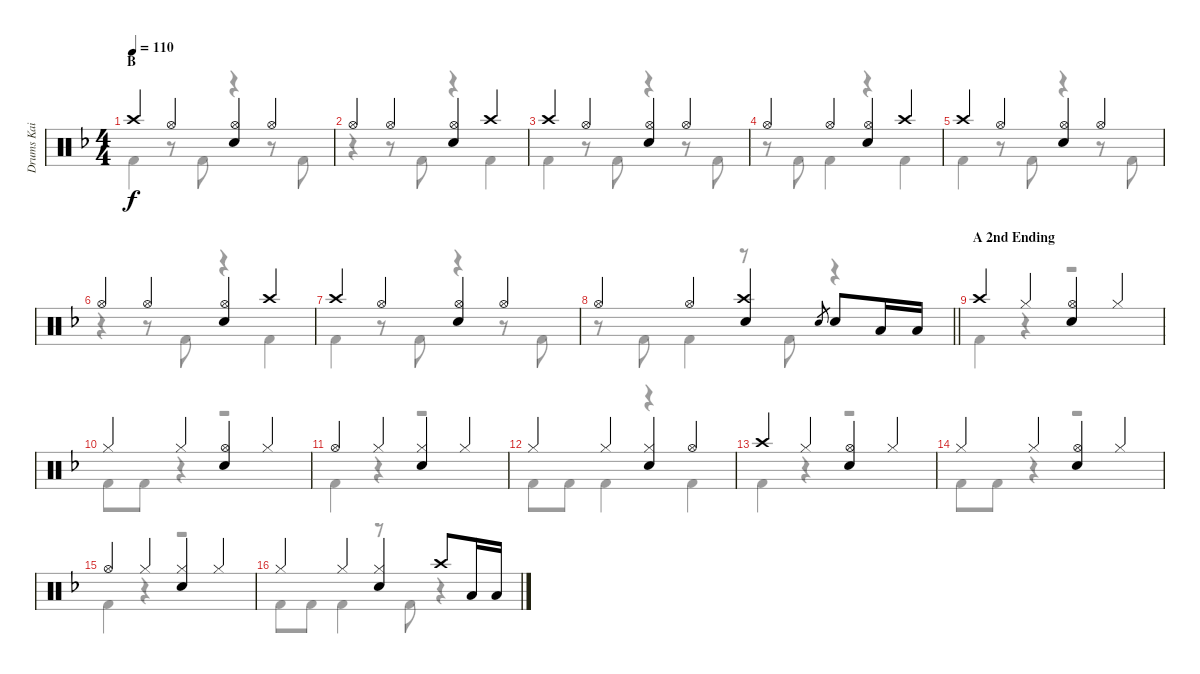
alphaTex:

\track ("Drums Kai" "Drums Kai") {instrument percussion}
\staff {score}
\articulation defaults
\voice
\ts (4 4)
\section ("" "B")
\tempo 110
\clef neutral
\ks f "Crash high (hit)".4{dy f} "Hi-Hat (open)".4
("Hi-Hat (open)" "Electric Snare (hit)").4 "Hi-Hat (open)".4 |
"Hi-Hat (open)".4 "Hi-Hat (open)".4 ("Hi-Hat (open)" "Electric Snare (hit)").4 "Crash high (hit)".4 |
"Crash high (hit)".4 "Hi-Hat (open)".4 ("Hi-Hat (open)" "Electric Snare (hit)").4 "Hi-Hat (open)".4 |
"Hi-Hat (open)".4 "Hi-Hat (open)".4 ("Hi-Hat (open)" "Electric Snare (hit)").4 "Crash high (hit)".4 |
"Crash high (hit)".4 "Hi-Hat (open)".4 ("Hi-Hat (open)" "Electric Snare (hit)").4 "Hi-Hat (open)".4 |
"Hi-Hat (open)".4 "Hi-Hat (open)".4 ("Hi-Hat (open)" "Electric Snare (hit)").4 "Crash high (hit)".4 |
"Crash high (hit)".4 "Hi-Hat (open)".4 ("Hi-Hat (open)" "Electric Snare (hit)").4 "Hi-Hat (open)".4 |
\barLineRight lightlight "Hi-Hat (open)".4 "Hi-Hat (open)".4
("Crash high (hit)" "Electric Snare (hit)").4 "Electric Snare (hit)".8{gr} "Electric Snare (hit)".8 "Low Tom (hit)".16 "Low Tom (hit)".16 |
\section ("" "A 2nd Ending")
"Crash high (hit)".4 "Hi-Hat (closed)".4 ("Hi-Hat (open)" "Electric Snare (hit)").4 "Hi-Hat (closed)".4 |
"Hi-Hat (closed)".4 "Hi-Hat (closed)".4 ("Hi-Hat (open)" "Electric Snare (hit)").4 "Hi-Hat (closed)".4 |
"Hi-Hat (open)".4 "Hi-Hat (closed)".4 ("Hi-Hat (closed)" "Electric Snare (hit)").4 "Hi-Hat (closed)".4 |
"Hi-Hat (closed)".4 "Hi-Hat (closed)".4 ("Hi-Hat (closed)" "Electric Snare (hit)").4 "Hi-Hat (open)".4 |
"Crash high (hit)".4 "Hi-Hat (closed)".4 ("Hi-Hat (open)" "Electric Snare (hit)").4 "Hi-Hat (closed)".4 |
"Hi-Hat (closed)".4 "Hi-Hat (closed)".4 ("Hi-Hat (open)" "Electric Snare (hit)").4 "Hi-Hat (closed)".4 |
"Hi-Hat (open)".4 "Hi-Hat (closed)".4 ("Hi-Hat (closed)" "Electric Snare (hit)").4 "Hi-Hat (closed)".4 |
"Hi-Hat (closed)".4 "Hi-Hat (closed)".4 ("Hi-Hat (closed)" "Electric Snare (hit)").4 "Crash high (hit)".8 "Low Tom (hit)".16 "Low Tom (hit)".16
\voice
\clef neutral
\ottava regular
\simile none
\ks f "Kick (hit) 2".4{dy f}
r.8 "Kick (hit) 2".8 r.4 r.8 "Kick (hit) 2".8 |
r.4 r.8 "Kick (hit) 2".8 r.4 "Kick (hit) 2".4 |
"Kick (hit) 2".4 r.8 "Kick (hit) 2".8 r.4 r.8 "Kick (hit) 2".8 |
r.8 "Kick (hit) 2".8 "Kick (hit) 2".4 r.4 "Kick (hit) 2".4 |
"Kick (hit) 2".4 r.8 "Kick (hit) 2".8 r.4 r.8 "Kick (hit) 2".8 |
r.4 r.8 "Kick (hit) 2".8 r.4 "Kick (hit) 2".4 |
"Kick (hit) 2".4 r.8 "Kick (hit) 2".8 r.4 r.8 "Kick (hit) 2".8 |
\barLineRight lightlight
r.8 "Kick (hit) 2".8 "Kick (hit) 2".4 r.8 "Kick (hit) 2".8 r.4 |
"Kick (hit) 2".4 r.4 r.2 |
"Kick (hit) 2".8 "Kick (hit) 2".8 r.4 r.2 |
"Kick (hit) 2".4 r.4 r.2 |
"Kick (hit) 2".8 "Kick (hit) 2".8 "Kick (hit) 2".4 r.4 "Kick (hit) 2".4 |
"Kick (hit) 2".4 r.4 r.2 |
"Kick (hit) 2".8 "Kick (hit) 2".8 r.4 r.2 |
"Kick (hit) 2".4 r.4 r.2 |
"Kick (hit) 2".8 "Kick (hit) 2".8 "Kick (hit) 2".4 r.8 "Kick (hit) 2".8 r.4
